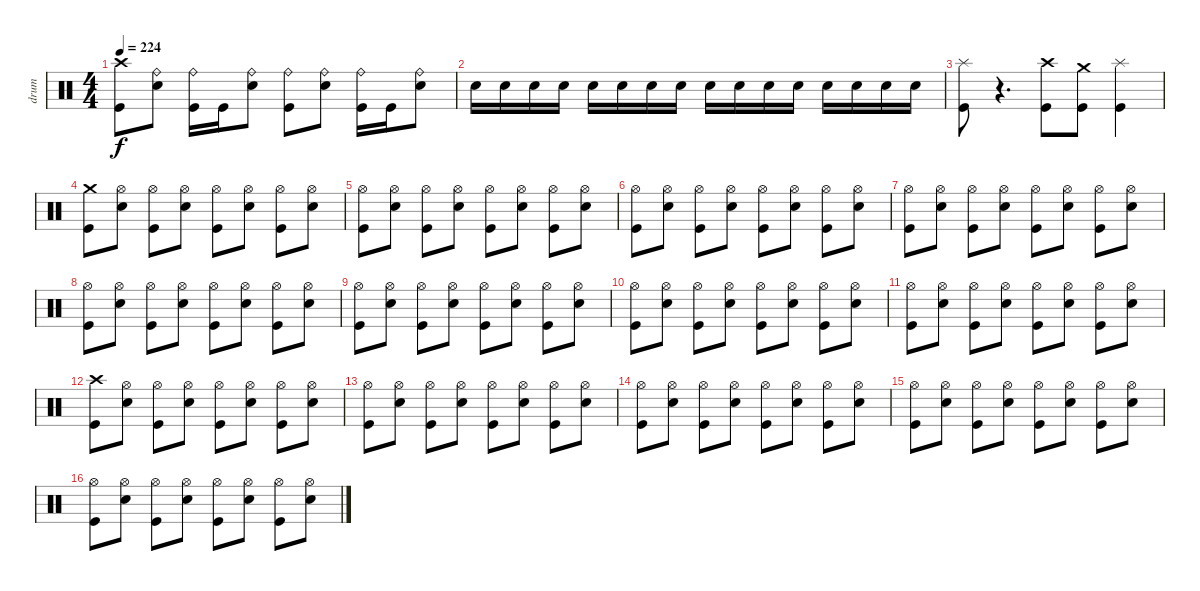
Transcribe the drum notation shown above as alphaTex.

\track ("drum" "drum") {instrument percussion}
\staff {score}
\articulation defaults
\ts (4 4)
\tempo 224
\clef neutral
\ks c
("Kick (hit)" "Crash high (hit)").8{dy f} ("Electric Snare (hit)" "Ride (bell)").8 ("Kick (hit)" "Ride (bell)").16 "Kick (hit)".16 ("Electric Snare (hit)" "Ride (bell)").8 ("Kick (hit)" "Ride (bell)").8 ("Electric Snare (hit)" "Ride (bell)").8 ("Kick (hit)" "Ride (bell)").16 "Kick (hit)".16 ("Electric Snare (hit)" "Ride (bell)").8 |
"Electric Snare (hit)".16 "Electric Snare (hit)".16 "Electric Snare (hit)".16 "Electric Snare (hit)".16 "Electric Snare (hit)".16 "Electric Snare (hit)".16 "Electric Snare (hit)".16 "Electric Snare (hit)".16 "Electric Snare (hit)".16 "Electric Snare (hit)".16 "Electric Snare (hit)".16 "Electric Snare (hit)".16 "Electric Snare (hit)".16 "Electric Snare (hit)".16 "Electric Snare (hit)".16 "Electric Snare (hit)".16 |
("Kick (hit)" "Splash (hit)").8 r.4{d} ("Kick (hit)" "Crash high (hit)").8{volume 16} ("Kick (hit)" "Crash medium (hit)").8 ("Kick (hit)" "Splash (hit)").4 |
("Kick (hit)" "Crash medium (hit)").8 ("Electric Snare (hit)" "Hi-Hat (open)").8 ("Kick (hit)" "Hi-Hat (open)").8 ("Electric Snare (hit)" "Hi-Hat (open)").8 ("Kick (hit)" "Hi-Hat (open)").8 ("Electric Snare (hit)" "Hi-Hat (open)").8 ("Kick (hit)" "Hi-Hat (open)").8 ("Electric Snare (hit)" "Hi-Hat (open)").8 |
("Kick (hit)" "Hi-Hat (open)").8 ("Electric Snare (hit)" "Hi-Hat (open)").8 ("Kick (hit)" "Hi-Hat (open)").8 ("Electric Snare (hit)" "Hi-Hat (open)").8 ("Kick (hit)" "Hi-Hat (open)").8 ("Electric Snare (hit)" "Hi-Hat (open)").8 ("Kick (hit)" "Hi-Hat (open)").8 ("Electric Snare (hit)" "Hi-Hat (open)").8 |
("Kick (hit)" "Hi-Hat (open)").8 ("Electric Snare (hit)" "Hi-Hat (open)").8 ("Kick (hit)" "Hi-Hat (open)").8 ("Electric Snare (hit)" "Hi-Hat (open)").8 ("Kick (hit)" "Hi-Hat (open)").8 ("Electric Snare (hit)" "Hi-Hat (open)").8 ("Kick (hit)" "Hi-Hat (open)").8 ("Electric Snare (hit)" "Hi-Hat (open)").8 |
("Kick (hit)" "Hi-Hat (open)").8 ("Electric Snare (hit)" "Hi-Hat (open)").8 ("Kick (hit)" "Hi-Hat (open)").8 ("Electric Snare (hit)" "Hi-Hat (open)").8 ("Kick (hit)" "Hi-Hat (open)").8 ("Electric Snare (hit)" "Hi-Hat (open)").8 ("Kick (hit)" "Hi-Hat (open)").8 ("Electric Snare (hit)" "Hi-Hat (open)").8 |
("Kick (hit)" "Hi-Hat (open)").8 ("Electric Snare (hit)" "Hi-Hat (open)").8 ("Kick (hit)" "Hi-Hat (open)").8 ("Electric Snare (hit)" "Hi-Hat (open)").8 ("Kick (hit)" "Hi-Hat (open)").8 ("Electric Snare (hit)" "Hi-Hat (open)").8 ("Kick (hit)" "Hi-Hat (open)").8 ("Electric Snare (hit)" "Hi-Hat (open)").8 |
("Kick (hit)" "Hi-Hat (open)").8 ("Electric Snare (hit)" "Hi-Hat (open)").8 ("Kick (hit)" "Hi-Hat (open)").8 ("Electric Snare (hit)" "Hi-Hat (open)").8 ("Kick (hit)" "Hi-Hat (open)").8 ("Electric Snare (hit)" "Hi-Hat (open)").8 ("Kick (hit)" "Hi-Hat (open)").8 ("Electric Snare (hit)" "Hi-Hat (open)").8 |
("Kick (hit)" "Hi-Hat (open)").8 ("Electric Snare (hit)" "Hi-Hat (open)").8 ("Kick (hit)" "Hi-Hat (open)").8 ("Electric Snare (hit)" "Hi-Hat (open)").8 ("Kick (hit)" "Hi-Hat (open)").8 ("Electric Snare (hit)" "Hi-Hat (open)").8 ("Kick (hit)" "Hi-Hat (open)").8 ("Electric Snare (hit)" "Hi-Hat (open)").8 |
("Kick (hit)" "Hi-Hat (open)").8 ("Electric Snare (hit)" "Hi-Hat (open)").8 ("Kick (hit)" "Hi-Hat (open)").8 ("Electric Snare (hit)" "Hi-Hat (open)").8 ("Kick (hit)" "Hi-Hat (open)").8 ("Electric Snare (hit)" "Hi-Hat (open)").8 ("Kick (hit)" "Hi-Hat (open)").8 ("Electric Snare (hit)" "Hi-Hat (open)").8 |
("Kick (hit)" "Crash high (hit)").8 ("Electric Snare (hit)" "Hi-Hat (open)").8 ("Kick (hit)" "Hi-Hat (open)").8 ("Electric Snare (hit)" "Hi-Hat (open)").8 ("Kick (hit)" "Hi-Hat (open)").8 ("Electric Snare (hit)" "Hi-Hat (open)").8 ("Kick (hit)" "Hi-Hat (open)").8 ("Electric Snare (hit)" "Hi-Hat (open)").8 |
("Kick (hit)" "Hi-Hat (open)").8 ("Electric Snare (hit)" "Hi-Hat (open)").8 ("Kick (hit)" "Hi-Hat (open)").8 ("Electric Snare (hit)" "Hi-Hat (open)").8 ("Kick (hit)" "Hi-Hat (open)").8 ("Electric Snare (hit)" "Hi-Hat (open)").8 ("Kick (hit)" "Hi-Hat (open)").8 ("Electric Snare (hit)" "Hi-Hat (open)").8 |
("Kick (hit)" "Hi-Hat (open)").8 ("Electric Snare (hit)" "Hi-Hat (open)").8 ("Kick (hit)" "Hi-Hat (open)").8 ("Electric Snare (hit)" "Hi-Hat (open)").8 ("Kick (hit)" "Hi-Hat (open)").8 ("Electric Snare (hit)" "Hi-Hat (open)").8 ("Kick (hit)" "Hi-Hat (open)").8 ("Electric Snare (hit)" "Hi-Hat (open)").8 |
("Kick (hit)" "Hi-Hat (open)").8 ("Electric Snare (hit)" "Hi-Hat (open)").8 ("Kick (hit)" "Hi-Hat (open)").8 ("Electric Snare (hit)" "Hi-Hat (open)").8 ("Kick (hit)" "Hi-Hat (open)").8 ("Electric Snare (hit)" "Hi-Hat (open)").8 ("Kick (hit)" "Hi-Hat (open)").8 ("Electric Snare (hit)" "Hi-Hat (open)").8 |
("Kick (hit)" "Hi-Hat (open)").8 ("Electric Snare (hit)" "Hi-Hat (open)").8 ("Kick (hit)" "Hi-Hat (open)").8 ("Electric Snare (hit)" "Hi-Hat (open)").8 ("Kick (hit)" "Hi-Hat (open)").8 ("Electric Snare (hit)" "Hi-Hat (open)").8 ("Kick (hit)" "Hi-Hat (open)").8 ("Electric Snare (hit)" "Hi-Hat (open)").8
